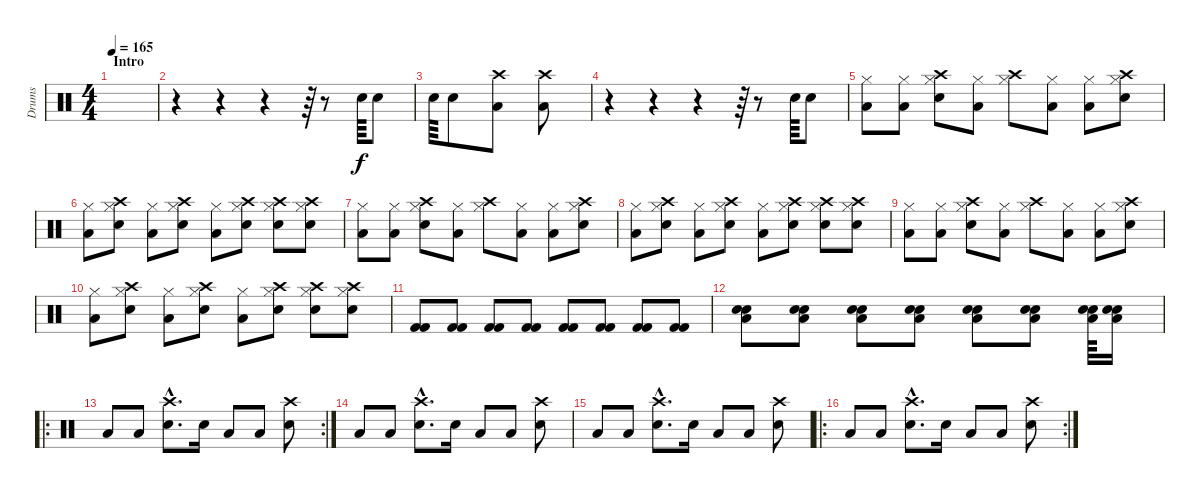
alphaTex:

\track ("Drums" "Drums") {instrument percussion}
\staff {score}
\articulation defaults
\ts (4 4)
\section ("" "Intro")
\tempo 165
\clef neutral
\ks c
|
r.4 r.4 r.4 r.64 r.8 "Electric Snare (hit)".64 "Electric Snare (hit)".8 |
"Electric Snare (hit)".64 "Electric Snare (hit)".8 ("Crash high (hit)" "Low Floor Tom (hit)").8 ("Crash high (hit)" "Low Floor Tom (hit)").8 |
r.4 r.4 r.4 r.64 r.8 "Electric Snare (hit)".64 "Electric Snare (hit)".8 |
("Hi-Hat (closed)" "Low Floor Tom (hit)").8 ("Hi-Hat (closed)" "Low Floor Tom (hit)").8 ("Hi-Hat (closed)" "Crash high (hit)" "Electric Snare (hit)").8 ("Hi-Hat (closed)" "Low Floor Tom (hit)").8 ("Hi-Hat (closed)" "Crash high (hit)").8 ("Hi-Hat (closed)" "Low Floor Tom (hit)").8 ("Hi-Hat (closed)" "Low Floor Tom (hit)").8 ("Hi-Hat (closed)" "Crash high (hit)" "Electric Snare (hit)").8 |
("Hi-Hat (closed)" "Low Floor Tom (hit)").8 ("Hi-Hat (closed)" "Crash high (hit)" "Electric Snare (hit)").8 ("Hi-Hat (closed)" "Low Floor Tom (hit)").8 ("Hi-Hat (closed)" "Crash high (hit)" "Electric Snare (hit)").8 ("Hi-Hat (closed)" "Low Floor Tom (hit)").8 ("Hi-Hat (closed)" "Crash high (hit)" "Electric Snare (hit)").8 ("Hi-Hat (closed)" "Crash high (hit)" "Electric Snare (hit)").8 ("Hi-Hat (closed)" "Crash high (hit)" "Electric Snare (hit)").8 |
("Hi-Hat (closed)" "Low Floor Tom (hit)").8 ("Hi-Hat (closed)" "Low Floor Tom (hit)").8 ("Hi-Hat (closed)" "Crash high (hit)" "Electric Snare (hit)").8 ("Hi-Hat (closed)" "Low Floor Tom (hit)").8 ("Hi-Hat (closed)" "Crash high (hit)").8 ("Hi-Hat (closed)" "Low Floor Tom (hit)").8 ("Hi-Hat (closed)" "Low Floor Tom (hit)").8 ("Hi-Hat (closed)" "Crash high (hit)" "Electric Snare (hit)").8 |
("Hi-Hat (closed)" "Low Floor Tom (hit)").8 ("Hi-Hat (closed)" "Crash high (hit)" "Electric Snare (hit)").8 ("Hi-Hat (closed)" "Low Floor Tom (hit)").8 ("Hi-Hat (closed)" "Crash high (hit)" "Electric Snare (hit)").8 ("Hi-Hat (closed)" "Low Floor Tom (hit)").8 ("Hi-Hat (closed)" "Crash high (hit)" "Electric Snare (hit)").8 ("Hi-Hat (closed)" "Crash high (hit)" "Electric Snare (hit)").8 ("Hi-Hat (closed)" "Crash high (hit)" "Electric Snare (hit)").8 |
("Hi-Hat (closed)" "Low Floor Tom (hit)").8 ("Hi-Hat (closed)" "Low Floor Tom (hit)").8 ("Hi-Hat (closed)" "Crash high (hit)" "Electric Snare (hit)").8 ("Hi-Hat (closed)" "Low Floor Tom (hit)").8 ("Hi-Hat (closed)" "Crash high (hit)").8 ("Hi-Hat (closed)" "Low Floor Tom (hit)").8 ("Hi-Hat (closed)" "Low Floor Tom (hit)").8 ("Hi-Hat (closed)" "Crash high (hit)" "Electric Snare (hit)").8 |
("Hi-Hat (closed)" "Low Floor Tom (hit)").8 ("Hi-Hat (closed)" "Crash high (hit)" "Electric Snare (hit)").8 ("Hi-Hat (closed)" "Low Floor Tom (hit)").8 ("Hi-Hat (closed)" "Crash high (hit)" "Electric Snare (hit)").8 ("Hi-Hat (closed)" "Low Floor Tom (hit)").8 ("Hi-Hat (closed)" "Crash high (hit)" "Electric Snare (hit)").8 ("Hi-Hat (closed)" "Crash high (hit)" "Electric Snare (hit)").8 ("Hi-Hat (closed)" "Crash high (hit)" "Electric Snare (hit)").8 |
("Kick (hit) 2" "Kick (hit) 2").8 ("Kick (hit) 2" "Kick (hit) 2").8 ("Kick (hit) 2" "Kick (hit) 2").8 ("Kick (hit) 2" "Kick (hit) 2").8 ("Kick (hit) 2" "Kick (hit) 2").8 ("Kick (hit) 2" "Kick (hit) 2").8 ("Kick (hit) 2" "Kick (hit) 2").8 ("Kick (hit) 2" "Kick (hit) 2").8 |
("Low Floor Tom (hit)" "Electric Snare (hit)" "Electric Snare (hit)").8 ("Low Floor Tom (hit)" "Electric Snare (hit)" "Electric Snare (hit)").8 ("Low Floor Tom (hit)" "Electric Snare (hit)" "Electric Snare (hit)").8 ("Low Floor Tom (hit)" "Electric Snare (hit)" "Electric Snare (hit)").8 ("Low Floor Tom (hit)" "Electric Snare (hit)" "Electric Snare (hit)").8 ("Low Floor Tom (hit)" "Electric Snare (hit)" "Electric Snare (hit)").8 ("Low Floor Tom (hit)" "Electric Snare (hit)" "Electric Snare (hit)").64 ("Low Floor Tom (hit)" "Electric Snare (hit)" "Electric Snare (hit)").16 |
\ro
\rc 2
\section ("" "")
"Low Tom (hit)".8 "Low Tom (hit)".8 ("Electric Snare (hit)"{hac} "Crash high (hit)"{hac}).8{d} "Electric Snare (hit)".16 "Low Tom (hit)".8 "Low Tom (hit)".8 ("Electric Snare (hit)" "Crash high (hit)").8 |
"Low Tom (hit)".8 "Low Tom (hit)".8 ("Electric Snare (hit)"{hac} "Crash high (hit)"{hac}).8{d} "Electric Snare (hit)".16 "Low Tom (hit)".8 "Low Tom (hit)".8 ("Electric Snare (hit)" "Crash high (hit)").8 |
"Low Tom (hit)".8 "Low Tom (hit)".8 ("Electric Snare (hit)"{hac} "Crash high (hit)"{hac}).8{d} "Electric Snare (hit)".16 "Low Tom (hit)".8 "Low Tom (hit)".8 ("Electric Snare (hit)" "Crash high (hit)").8 |
\ro
\rc 2 "Low Tom (hit)".8 "Low Tom (hit)".8
("Electric Snare (hit)"{hac} "Crash high (hit)"{hac}).8{d} "Electric Snare (hit)".16 "Low Tom (hit)".8 "Low Tom (hit)".8 ("Electric Snare (hit)" "Crash high (hit)").8
